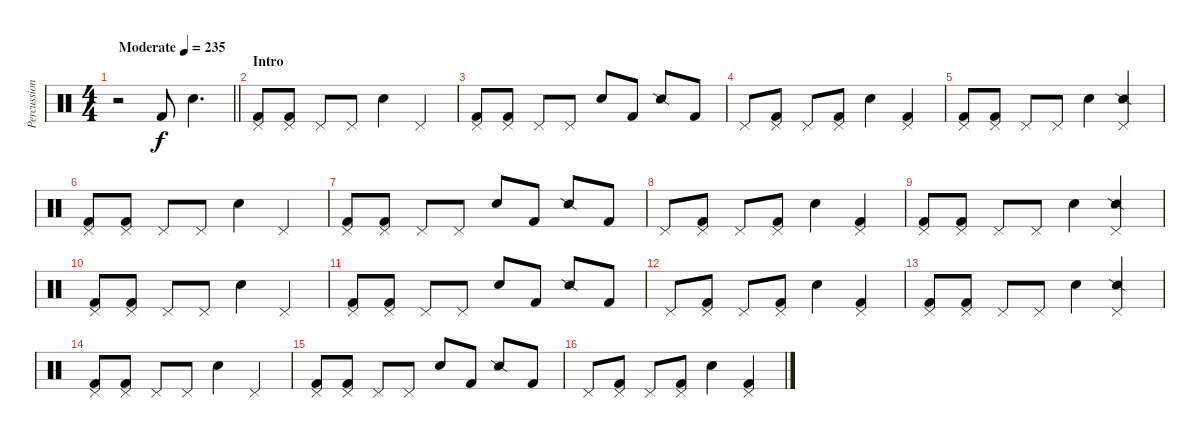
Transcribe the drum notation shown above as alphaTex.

\track ("Percussion" "Percussion") {instrument percussion}
\staff {score}
\articulation defaults
\ts (4 4)
\tempo (235 "Moderate")
\clef neutral
\barLineRight lightlight
\ks c
r.2{dy f} "Kick (hit) 2".8 "Snare (hit) 2".4{d} |
\section ("" "Intro")
("Kick (hit) 2" "Pedal Hi-Hat (hit)").8 ("Kick (hit) 2" "Pedal Hi-Hat (hit)").8 "Pedal Hi-Hat (hit)".8 "Pedal Hi-Hat (hit)".8 "Snare (hit) 2".4 "Pedal Hi-Hat (hit)".4 |
("Kick (hit) 2" "Pedal Hi-Hat (hit)").8 ("Kick (hit) 2" "Pedal Hi-Hat (hit)").8 "Pedal Hi-Hat (hit)".8 "Pedal Hi-Hat (hit)".8 "Snare (hit) 2".8 "Kick (hit) 2".8 "Snare (side stick) 2".8 "Kick (hit) 2".8 |
"Pedal Hi-Hat (hit)".8 ("Pedal Hi-Hat (hit)" "Kick (hit) 2").8 "Pedal Hi-Hat (hit)".8 ("Pedal Hi-Hat (hit)" "Kick (hit) 2").8 "Snare (hit) 2".4 ("Kick (hit) 2" "Pedal Hi-Hat (hit)").4 |
("Kick (hit) 2" "Pedal Hi-Hat (hit)").8 ("Kick (hit) 2" "Pedal Hi-Hat (hit)").8 "Pedal Hi-Hat (hit)".8 "Pedal Hi-Hat (hit)".8 "Snare (hit) 2".4 ("Pedal Hi-Hat (hit)" "Snare (side stick) 2").4 |
("Kick (hit) 2" "Pedal Hi-Hat (hit)").8 ("Kick (hit) 2" "Pedal Hi-Hat (hit)").8 "Pedal Hi-Hat (hit)".8 "Pedal Hi-Hat (hit)".8 "Snare (hit) 2".4 "Pedal Hi-Hat (hit)".4 |
("Kick (hit) 2" "Pedal Hi-Hat (hit)").8 ("Kick (hit) 2" "Pedal Hi-Hat (hit)").8 "Pedal Hi-Hat (hit)".8 "Pedal Hi-Hat (hit)".8 "Snare (hit) 2".8 "Kick (hit) 2".8 "Snare (side stick) 2".8 "Kick (hit) 2".8 |
"Pedal Hi-Hat (hit)".8 ("Pedal Hi-Hat (hit)" "Kick (hit) 2").8 "Pedal Hi-Hat (hit)".8 ("Pedal Hi-Hat (hit)" "Kick (hit) 2").8 "Snare (hit) 2".4 ("Kick (hit) 2" "Pedal Hi-Hat (hit)").4 |
("Kick (hit) 2" "Pedal Hi-Hat (hit)").8 ("Kick (hit) 2" "Pedal Hi-Hat (hit)").8 "Pedal Hi-Hat (hit)".8 "Pedal Hi-Hat (hit)".8 "Snare (hit) 2".4 ("Pedal Hi-Hat (hit)" "Snare (side stick) 2").4 |
("Kick (hit) 2" "Pedal Hi-Hat (hit)").8 ("Kick (hit) 2" "Pedal Hi-Hat (hit)").8 "Pedal Hi-Hat (hit)".8 "Pedal Hi-Hat (hit)".8 "Snare (hit) 2".4 "Pedal Hi-Hat (hit)".4 |
("Kick (hit) 2" "Pedal Hi-Hat (hit)").8 ("Kick (hit) 2" "Pedal Hi-Hat (hit)").8 "Pedal Hi-Hat (hit)".8 "Pedal Hi-Hat (hit)".8 "Snare (hit) 2".8 "Kick (hit) 2".8 "Snare (side stick) 2".8 "Kick (hit) 2".8 |
"Pedal Hi-Hat (hit)".8 ("Pedal Hi-Hat (hit)" "Kick (hit) 2").8 "Pedal Hi-Hat (hit)".8 ("Pedal Hi-Hat (hit)" "Kick (hit) 2").8 "Snare (hit) 2".4 ("Kick (hit) 2" "Pedal Hi-Hat (hit)").4 |
("Kick (hit) 2" "Pedal Hi-Hat (hit)").8 ("Kick (hit) 2" "Pedal Hi-Hat (hit)").8 "Pedal Hi-Hat (hit)".8 "Pedal Hi-Hat (hit)".8 "Snare (hit) 2".4 ("Pedal Hi-Hat (hit)" "Snare (side stick) 2").4 |
("Kick (hit) 2" "Pedal Hi-Hat (hit)").8 ("Kick (hit) 2" "Pedal Hi-Hat (hit)").8 "Pedal Hi-Hat (hit)".8 "Pedal Hi-Hat (hit)".8 "Snare (hit) 2".4 "Pedal Hi-Hat (hit)".4 |
("Kick (hit) 2" "Pedal Hi-Hat (hit)").8 ("Kick (hit) 2" "Pedal Hi-Hat (hit)").8 "Pedal Hi-Hat (hit)".8 "Pedal Hi-Hat (hit)".8 "Snare (hit) 2".8 "Kick (hit) 2".8 "Snare (side stick) 2".8 "Kick (hit) 2".8 |
"Pedal Hi-Hat (hit)".8 ("Pedal Hi-Hat (hit)" "Kick (hit) 2").8 "Pedal Hi-Hat (hit)".8 ("Pedal Hi-Hat (hit)" "Kick (hit) 2").8 "Snare (hit) 2".4 ("Kick (hit) 2" "Pedal Hi-Hat (hit)").4
